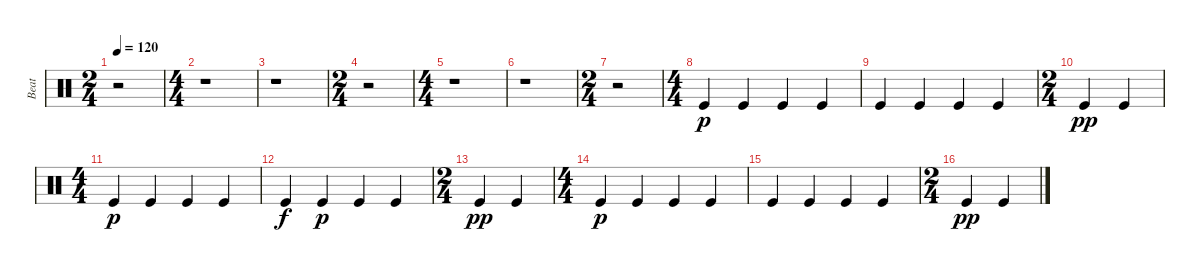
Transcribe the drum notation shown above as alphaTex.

\track ("Beat" "Beat") {instrument percussion}
\staff {score}
\articulation defaults
\ts (2 4)
\tempo 120
\clef neutral
\ks c
r.2{dy p} |
\ts (4 4)
r.1 |
r.1 |
\ts (2 4)
r.2 |
\ts (4 4)
r.1 |
r.1 |
\ts (2 4)
r.2 |
\ts (4 4)
"Kick (hit)".4 "Kick (hit)".4 "Kick (hit)".4 "Kick (hit)".4 |
"Kick (hit)".4 "Kick (hit)".4 "Kick (hit)".4 "Kick (hit)".4 |
\ts (2 4)
"Kick (hit)".4{dy pp} "Kick (hit)".4 |
\ts (4 4)
"Kick (hit)".4{dy p} "Kick (hit)".4 "Kick (hit)".4 "Kick (hit)".4 |
"Kick (hit)".4{dy f} "Kick (hit)".4{dy p} "Kick (hit)".4 "Kick (hit)".4 |
\ts (2 4)
"Kick (hit)".4{dy pp} "Kick (hit)".4 |
\ts (4 4)
"Kick (hit)".4{dy p} "Kick (hit)".4 "Kick (hit)".4 "Kick (hit)".4 |
"Kick (hit)".4 "Kick (hit)".4 "Kick (hit)".4 "Kick (hit)".4 |
\ts (2 4)
"Kick (hit)".4{dy pp} "Kick (hit)".4
